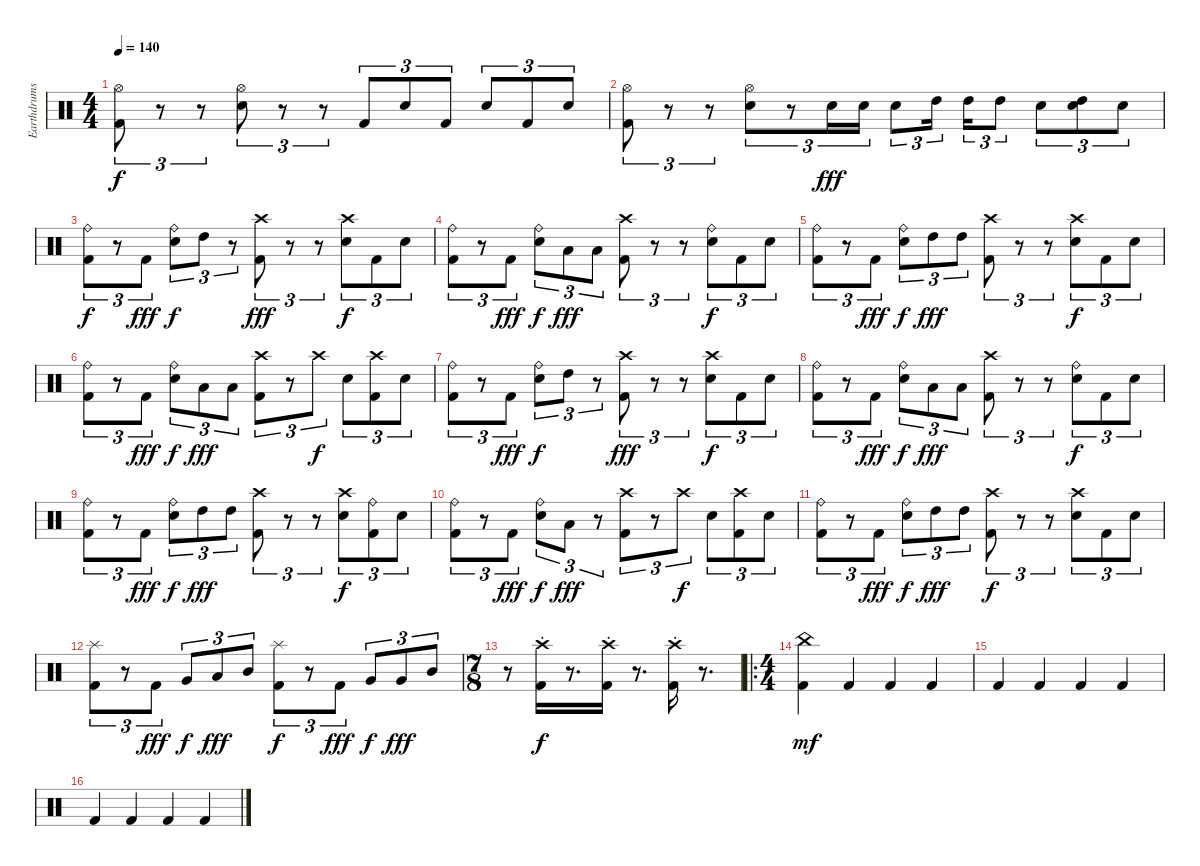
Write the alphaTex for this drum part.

\track ("Earthdrums" "Earthdrums") {instrument percussion}
\staff {score}
\articulation defaults
\ts (4 4)
\tempo 140
\clef neutral
\ks c
("Hi-Hat (open)" "Kick (hit) 2").8{tu (3 2) dy f} r.8{tu (3 2)} r.8{tu (3 2)} ("Hi-Hat (open)" "Snare (hit) 2").8{tu (3 2)} r.8{tu (3 2)} r.8{tu (3 2)} "Kick (hit) 2".8{tu (3 2)} "Snare (hit) 2".8{tu (3 2)} "Kick (hit) 2".8{tu (3 2)} "Snare (hit) 2".8{tu (3 2)} "Kick (hit) 2".8{tu (3 2)} "Snare (hit) 2".8{tu (3 2)} |
("Hi-Hat (open)" "Kick (hit) 2").8{tu (3 2)} r.8{tu (3 2)} r.8{tu (3 2)} ("Hi-Hat (open)" "Snare (hit) 2").8{tu (3 2)} r.8{tu (3 2)} "Snare (hit) 2".16{tu (3 2) dy fff} "Snare (hit) 2".16{tu (3 2)} "Snare (hit) 2".8{tu (3 2)} "High Tom (hit)".16{tu (3 2) beam splitsecondary} "High Tom (hit)".16{tu (3 2)} "High Tom (hit)".8{tu (3 2)} "Snare (hit) 2".8{tu (3 2)} ("Snare (hit) 2" "High Tom (hit)").8{tu (3 2)} "Snare (hit) 2".8{tu (3 2)} |
("Ride (bell)" "Kick (hit) 2").8{tu (3 2) dy f} r.8{tu (3 2)} "Kick (hit) 2".8{tu (3 2) dy fff} ("Ride (bell)" "Snare (hit) 2").8{tu (3 2) dy f} "High Tom (hit)".8{tu (3 2)} r.8{tu (3 2)} ("Crash high (hit)" "Kick (hit) 2").8{tu (3 2) dy fff} r.8{tu (3 2)} r.8{tu (3 2)} ("Crash high (hit)" "Snare (hit) 2").8{tu (3 2) dy f} "Kick (hit) 2".8{tu (3 2)} "Snare (hit) 2".8{tu (3 2)} |
("Ride (bell)" "Kick (hit) 2").8{tu (3 2)} r.8{tu (3 2)} "Kick (hit) 2".8{tu (3 2) dy fff} ("Ride (bell)" "Snare (hit) 2").8{tu (3 2) dy f} "Low Tom (hit)".8{tu (3 2) dy fff} "Low Tom (hit)".8{tu (3 2)} ("Crash high (hit)" "Kick (hit) 2").8{tu (3 2)} r.8{tu (3 2)} r.8{tu (3 2)} ("Ride (bell)" "Snare (hit) 2").8{tu (3 2) dy f} "Kick (hit) 2".8{tu (3 2)} "Snare (hit) 2".8{tu (3 2)} |
("Ride (bell)" "Kick (hit) 2").8{tu (3 2)} r.8{tu (3 2)} "Kick (hit) 2".8{tu (3 2) dy fff} ("Ride (bell)" "Snare (hit) 2").8{tu (3 2) dy f} "High Tom (hit)".8{tu (3 2) dy fff} "High Tom (hit)".8{tu (3 2)} ("Crash high (hit)" "Kick (hit) 2").8{tu (3 2)} r.8{tu (3 2)} r.8{tu (3 2)} ("Crash high (hit)" "Snare (hit) 2").8{tu (3 2) dy f} "Kick (hit) 2".8{tu (3 2)} "Snare (hit) 2".8{tu (3 2)} |
("Ride (bell)" "Kick (hit) 2").8{tu (3 2)} r.8{tu (3 2)} "Kick (hit) 2".8{tu (3 2) dy fff} ("Ride (bell)" "Snare (hit) 2").8{tu (3 2) dy f} "Low Tom (hit)".8{tu (3 2) dy fff} "Low Tom (hit)".8{tu (3 2)} ("Crash high (hit)" "Kick (hit) 2").8{tu (3 2)} r.8{tu (3 2)} "Crash high (hit)".8{tu (3 2) dy f} "Snare (hit) 2".8{tu (3 2)} ("Crash high (hit)" "Kick (hit) 2").8{tu (3 2)} "Snare (hit) 2".8{tu (3 2)} |
("Ride (bell)" "Kick (hit) 2").8{tu (3 2)} r.8{tu (3 2)} "Kick (hit) 2".8{tu (3 2) dy fff} ("Ride (bell)" "Snare (hit) 2").8{tu (3 2) dy f} "High Tom (hit)".8{tu (3 2)} r.8{tu (3 2)} ("Crash high (hit)" "Kick (hit) 2").8{tu (3 2) dy fff} r.8{tu (3 2)} r.8{tu (3 2)} ("Crash high (hit)" "Snare (hit) 2").8{tu (3 2) dy f} "Kick (hit) 2".8{tu (3 2)} "Snare (hit) 2".8{tu (3 2)} |
("Ride (bell)" "Kick (hit) 2").8{tu (3 2)} r.8{tu (3 2)} "Kick (hit) 2".8{tu (3 2) dy fff} ("Ride (bell)" "Snare (hit) 2").8{tu (3 2) dy f} "Low Tom (hit)".8{tu (3 2) dy fff} "Low Tom (hit)".8{tu (3 2)} ("Crash high (hit)" "Kick (hit) 2").8{tu (3 2)} r.8{tu (3 2)} r.8{tu (3 2)} ("Ride (bell)" "Snare (hit) 2").8{tu (3 2) dy f} "Kick (hit) 2".8{tu (3 2)} "Snare (hit) 2".8{tu (3 2)} |
("Ride (bell)" "Kick (hit) 2").8{tu (3 2)} r.8{tu (3 2)} "Kick (hit) 2".8{tu (3 2) dy fff} ("Ride (bell)" "Snare (hit) 2").8{tu (3 2) dy f} "High Tom (hit)".8{tu (3 2) dy fff} "High Tom (hit)".8{tu (3 2)} ("Crash high (hit)" "Kick (hit) 2").8{tu (3 2)} r.8{tu (3 2)} r.8{tu (3 2)} ("Crash high (hit)" "Snare (hit) 2").8{tu (3 2) dy f} ("Ride (bell)" "Kick (hit) 2").8{tu (3 2)} "Snare (hit) 2".8{tu (3 2)} |
("Ride (bell)" "Kick (hit) 2").8{tu (3 2)} r.8{tu (3 2)} "Kick (hit) 2".8{tu (3 2) dy fff} ("Ride (bell)" "Snare (hit) 2").8{tu (3 2) dy f} "Low Tom (hit)".8{tu (3 2) dy fff} r.8{tu (3 2)} ("Crash high (hit)" "Kick (hit) 2").8{tu (3 2)} r.8{tu (3 2)} "Crash high (hit)".8{tu (3 2) dy f} "Snare (hit) 2".8{tu (3 2)} ("Crash high (hit)" "Kick (hit) 2").8{tu (3 2)} "Snare (hit) 2".8{tu (3 2)} |
("Ride (bell)" "Kick (hit) 2").8{tu (3 2)} r.8{tu (3 2)} "Kick (hit) 2".8{tu (3 2) dy fff} ("Ride (bell)" "Snare (hit) 2").8{tu (3 2) dy f} "High Tom (hit)".8{tu (3 2) dy fff} "High Tom (hit)".8{tu (3 2)} ("Crash high (hit)" "Kick (hit) 2").8{tu (3 2) dy f} r.8{tu (3 2)} r.8{tu (3 2)} ("Crash high (hit)" "Snare (hit) 2").8{tu (3 2)} "Kick (hit) 2".8{tu (3 2)} "Snare (hit) 2".8{tu (3 2)} |
("Splash (hit)" "Kick (hit) 2").8{tu (3 2)} r.8{tu (3 2)} "Kick (hit) 2".8{tu (3 2) dy fff} "Very Low Tom (hit)".8{tu (3 2) dy f} "Low Tom (hit)".8{tu (3 2) dy fff} "Mid Tom (hit)".8{tu (3 2)} ("Splash (hit)" "Kick (hit) 2").8{tu (3 2) dy f} r.8{tu (3 2)} "Kick (hit) 2".8{tu (3 2) dy fff} "Very Low Tom (hit)".8{tu (3 2) dy f} "Very Low Tom (hit)".8{tu (3 2) dy fff} "Mid Tom (hit)".8{tu (3 2)} |
\ts (7 8)
r.8 ("Crash high (hit)"{st} "Kick (hit) 2"{st}).16{dy f} r.8{d} ("Crash high (hit)"{st} "Kick (hit) 2"{st}).16 r.8{d} ("Crash high (hit)"{st} "Kick (hit) 2"{st}).16 r.8{d} |
\ro
\ts (4 4)
("China (hit)" "Kick (hit) 2").4{dy mf} "Kick (hit) 2".4 "Kick (hit) 2".4 "Kick (hit) 2".4 |
"Kick (hit) 2".4 "Kick (hit) 2".4 "Kick (hit) 2".4 "Kick (hit) 2".4 |
"Kick (hit) 2".4 "Kick (hit) 2".4 "Kick (hit) 2".4 "Kick (hit) 2".4
